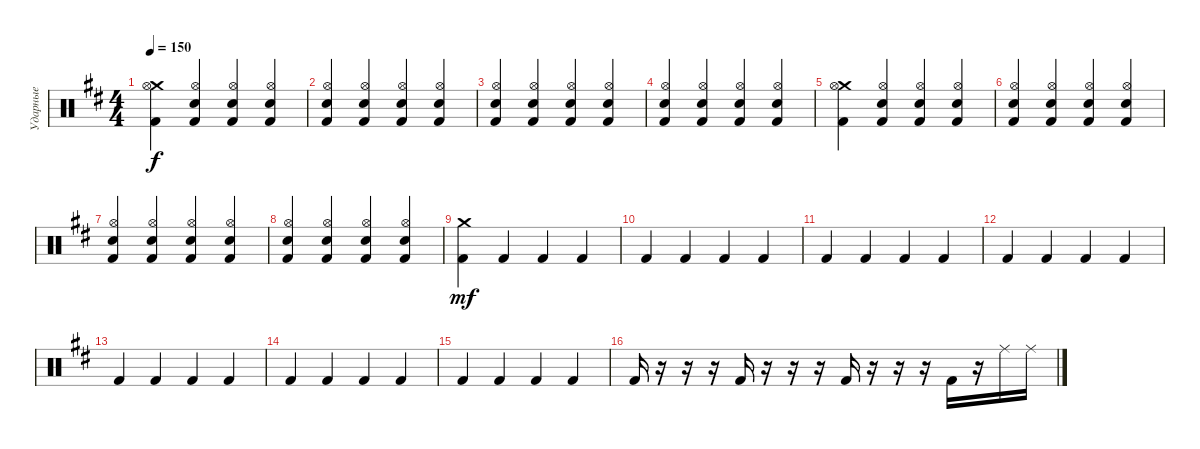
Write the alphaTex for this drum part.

\track ("Ударные" "Ударные") {instrument percussion}
\staff {score}
\articulation defaults
\ts (4 4)
\tempo 150
\clef neutral
\ks bminor
("Crash medium (hit)" "Kick (hit) 2" "Hi-Hat (open)").4{dy f} ("Electric Snare (hit)" "Hi-Hat (open)" "Kick (hit) 2").4 ("Electric Snare (hit)" "Hi-Hat (open)" "Kick (hit) 2").4 ("Electric Snare (hit)" "Hi-Hat (open)" "Kick (hit) 2").4 |
("Electric Snare (hit)" "Hi-Hat (open)" "Kick (hit) 2").4 ("Electric Snare (hit)" "Hi-Hat (open)" "Kick (hit) 2").4 ("Electric Snare (hit)" "Hi-Hat (open)" "Kick (hit) 2").4 ("Electric Snare (hit)" "Hi-Hat (open)" "Kick (hit) 2").4 |
("Electric Snare (hit)" "Hi-Hat (open)" "Kick (hit) 2").4 ("Electric Snare (hit)" "Hi-Hat (open)" "Kick (hit) 2").4 ("Electric Snare (hit)" "Hi-Hat (open)" "Kick (hit) 2").4 ("Electric Snare (hit)" "Hi-Hat (open)" "Kick (hit) 2").4 |
("Electric Snare (hit)" "Hi-Hat (open)" "Kick (hit) 2").4 ("Electric Snare (hit)" "Hi-Hat (open)" "Kick (hit) 2").4 ("Electric Snare (hit)" "Hi-Hat (open)" "Kick (hit) 2").4 ("Electric Snare (hit)" "Hi-Hat (open)" "Kick (hit) 2").4 |
("Crash medium (hit)" "Kick (hit) 2" "Hi-Hat (open)").4 ("Electric Snare (hit)" "Hi-Hat (open)" "Kick (hit) 2").4 ("Electric Snare (hit)" "Hi-Hat (open)" "Kick (hit) 2").4 ("Electric Snare (hit)" "Hi-Hat (open)" "Kick (hit) 2").4 |
("Electric Snare (hit)" "Hi-Hat (open)" "Kick (hit) 2").4 ("Electric Snare (hit)" "Hi-Hat (open)" "Kick (hit) 2").4 ("Electric Snare (hit)" "Hi-Hat (open)" "Kick (hit) 2").4 ("Electric Snare (hit)" "Hi-Hat (open)" "Kick (hit) 2").4 |
("Electric Snare (hit)" "Hi-Hat (open)" "Kick (hit) 2").4 ("Electric Snare (hit)" "Hi-Hat (open)" "Kick (hit) 2").4 ("Electric Snare (hit)" "Hi-Hat (open)" "Kick (hit) 2").4 ("Electric Snare (hit)" "Hi-Hat (open)" "Kick (hit) 2").4 |
("Electric Snare (hit)" "Hi-Hat (open)" "Kick (hit) 2").4 ("Electric Snare (hit)" "Hi-Hat (open)" "Kick (hit) 2").4 ("Electric Snare (hit)" "Hi-Hat (open)" "Kick (hit) 2").4 ("Electric Snare (hit)" "Hi-Hat (open)" "Kick (hit) 2").4 |
("Kick (hit) 2" "Crash medium (hit)").4{dy mf} "Kick (hit) 2".4 "Kick (hit) 2".4 "Kick (hit) 2".4 |
"Kick (hit) 2".4 "Kick (hit) 2".4 "Kick (hit) 2".4 "Kick (hit) 2".4 |
"Kick (hit) 2".4 "Kick (hit) 2".4 "Kick (hit) 2".4 "Kick (hit) 2".4 |
"Kick (hit) 2".4 "Kick (hit) 2".4 "Kick (hit) 2".4 "Kick (hit) 2".4 |
"Kick (hit) 2".4 "Kick (hit) 2".4 "Kick (hit) 2".4 "Kick (hit) 2".4 |
"Kick (hit) 2".4 "Kick (hit) 2".4 "Kick (hit) 2".4 "Kick (hit) 2".4 |
"Kick (hit) 2".4 "Kick (hit) 2".4 "Kick (hit) 2".4 "Kick (hit) 2".4 |
"Kick (hit) 2".16 r.16 r.16 r.16 "Kick (hit) 2".16 r.16 r.16 r.16 "Kick (hit) 2".16 r.16 r.16 r.16 "Kick (hit) 2".16 r.16 "Ride (middle)".16 "Ride (middle)".16
